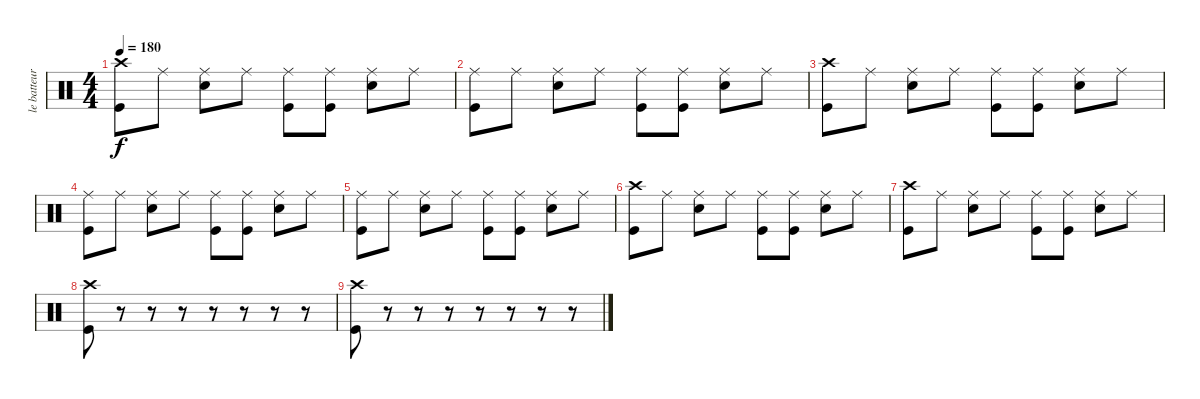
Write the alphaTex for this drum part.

\track ("le batteur" "le batteur") {instrument percussion}
\staff {score}
\articulation defaults
\ts (4 4)
\tempo 180
\clef neutral
\ks c
("Crash high (hit)" "Kick (hit)").8{dy f} "Ride (middle)".8 ("Ride (middle)" "Snare (hit) 2").8 "Ride (middle)".8 ("Ride (middle)" "Kick (hit)").8 ("Ride (middle)" "Kick (hit)").8 ("Ride (middle)" "Snare (hit) 2").8 "Ride (middle)".8 |
("Ride (middle)" "Kick (hit)").8 "Ride (middle)".8 ("Ride (middle)" "Snare (hit) 2").8 "Ride (middle)".8 ("Ride (middle)" "Kick (hit)").8 ("Ride (middle)" "Kick (hit)").8 ("Ride (middle)" "Snare (hit) 2").8 "Ride (middle)".8 |
("Crash high (hit)" "Kick (hit)").8 "Ride (middle)".8 ("Ride (middle)" "Snare (hit) 2").8 "Ride (middle)".8 ("Ride (middle)" "Kick (hit)").8 ("Ride (middle)" "Kick (hit)").8 ("Ride (middle)" "Snare (hit) 2").8 "Ride (middle)".8 |
("Ride (middle)" "Kick (hit)").8 "Ride (middle)".8 ("Ride (middle)" "Snare (hit) 2").8 "Ride (middle)".8 ("Ride (middle)" "Kick (hit)").8 ("Ride (middle)" "Kick (hit)").8 ("Ride (middle)" "Snare (hit) 2").8 "Ride (middle)".8 |
("Ride (middle)" "Kick (hit)").8 "Ride (middle)".8 ("Ride (middle)" "Snare (hit) 2").8 "Ride (middle)".8 ("Ride (middle)" "Kick (hit)").8 ("Ride (middle)" "Kick (hit)").8 ("Ride (middle)" "Snare (hit) 2").8 "Ride (middle)".8 |
("Crash high (hit)" "Kick (hit)").8 "Ride (middle)".8 ("Ride (middle)" "Snare (hit) 2").8 "Ride (middle)".8 ("Ride (middle)" "Kick (hit)").8 ("Ride (middle)" "Kick (hit)").8 ("Ride (middle)" "Snare (hit) 2").8 "Ride (middle)".8 |
("Crash high (hit)" "Kick (hit)").8 "Ride (middle)".8 ("Ride (middle)" "Snare (hit) 2").8 "Ride (middle)".8 ("Ride (middle)" "Kick (hit)").8 ("Ride (middle)" "Kick (hit)").8 ("Ride (middle)" "Snare (hit) 2").8 "Ride (middle)".8 |
("Crash high (hit)" "Kick (hit)").8 r.8 r.8 r.8 r.8 r.8 r.8 r.8 |
("Crash high (hit)" "Kick (hit)").8 r.8 r.8 r.8 r.8 r.8 r.8 r.8
